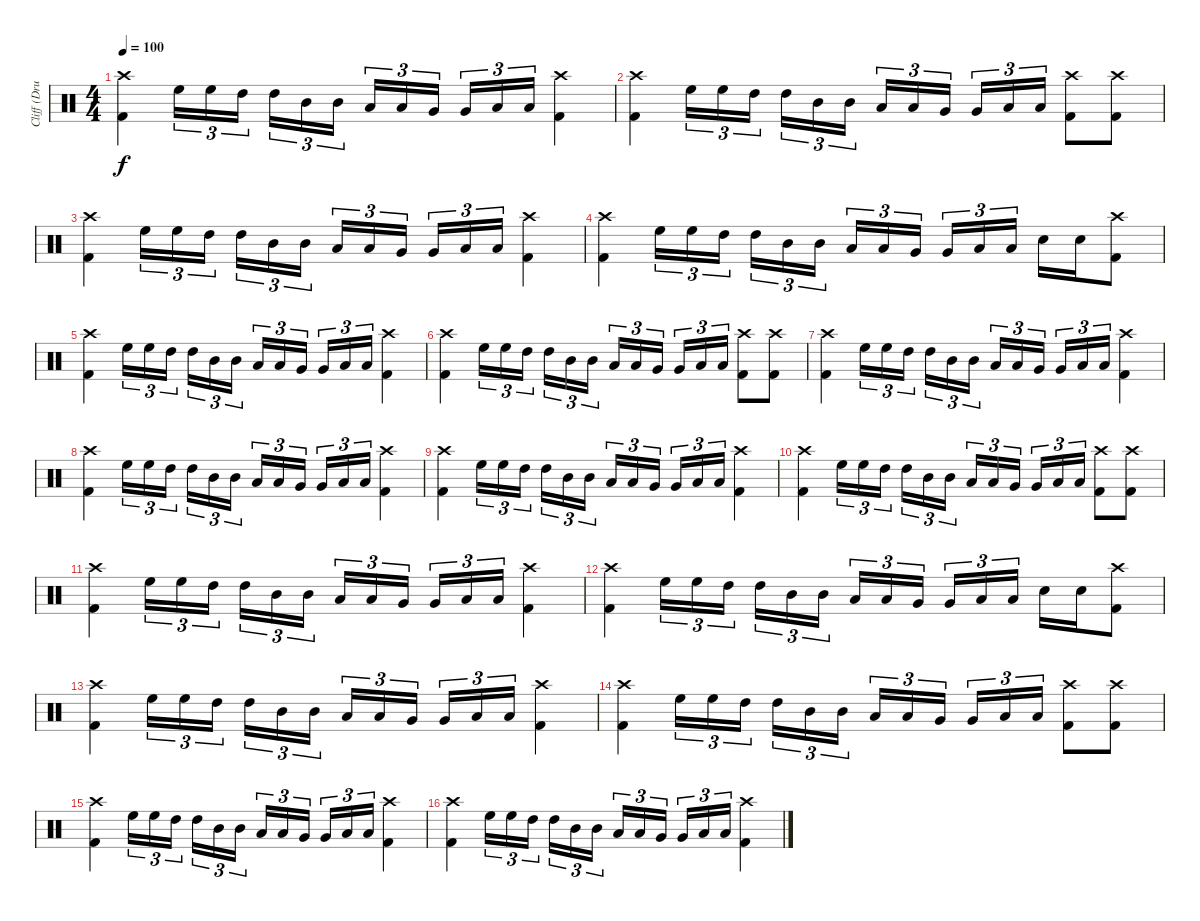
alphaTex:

\track ("Cliff (Drums)" "Cliff (Dru") {instrument percussion}
\staff {score}
\articulation defaults
\ts (4 4)
\tempo 100
\clef neutral
\ks c
("Crash high (hit)" "Kick (hit) 2").4{dy f} "High Floor Tom (hit)".16{tu (3 2)} "High Floor Tom (hit)".16{tu (3 2)} "High Tom (hit)".16{tu (3 2)} "High Tom (hit)".16{tu (3 2)} "Mid Tom (hit)".16{tu (3 2)} "Mid Tom (hit)".16{tu (3 2)} "Low Tom (hit)".16{tu (3 2)} "Low Tom (hit)".16{tu (3 2)} "Very Low Tom (hit)".16{tu (3 2)} "Very Low Tom (hit)".16{tu (3 2)} "Low Floor Tom (hit)".16{tu (3 2)} "Low Floor Tom (hit)".16{tu (3 2)} ("Crash high (hit)" "Kick (hit) 2").4 |
("Crash high (hit)" "Kick (hit) 2").4 "High Floor Tom (hit)".16{tu (3 2)} "High Floor Tom (hit)".16{tu (3 2)} "High Tom (hit)".16{tu (3 2)} "High Tom (hit)".16{tu (3 2)} "Mid Tom (hit)".16{tu (3 2)} "Mid Tom (hit)".16{tu (3 2)} "Low Tom (hit)".16{tu (3 2)} "Low Tom (hit)".16{tu (3 2)} "Very Low Tom (hit)".16{tu (3 2)} "Very Low Tom (hit)".16{tu (3 2)} "Low Floor Tom (hit)".16{tu (3 2)} "Low Floor Tom (hit)".16{tu (3 2)} ("Crash high (hit)" "Kick (hit) 2").8 ("Crash high (hit)" "Kick (hit) 2").8 |
("Crash high (hit)" "Kick (hit) 2").4 "High Floor Tom (hit)".16{tu (3 2)} "High Floor Tom (hit)".16{tu (3 2)} "High Tom (hit)".16{tu (3 2)} "High Tom (hit)".16{tu (3 2)} "Mid Tom (hit)".16{tu (3 2)} "Mid Tom (hit)".16{tu (3 2)} "Low Tom (hit)".16{tu (3 2)} "Low Tom (hit)".16{tu (3 2)} "Very Low Tom (hit)".16{tu (3 2)} "Very Low Tom (hit)".16{tu (3 2)} "Low Floor Tom (hit)".16{tu (3 2)} "Low Floor Tom (hit)".16{tu (3 2)} ("Crash high (hit)" "Kick (hit) 2").4 |
("Crash high (hit)" "Kick (hit) 2").4 "High Floor Tom (hit)".16{tu (3 2)} "High Floor Tom (hit)".16{tu (3 2)} "High Tom (hit)".16{tu (3 2)} "High Tom (hit)".16{tu (3 2)} "Mid Tom (hit)".16{tu (3 2)} "Mid Tom (hit)".16{tu (3 2)} "Low Tom (hit)".16{tu (3 2)} "Low Tom (hit)".16{tu (3 2)} "Very Low Tom (hit)".16{tu (3 2)} "Very Low Tom (hit)".16{tu (3 2)} "Low Floor Tom (hit)".16{tu (3 2)} "Low Floor Tom (hit)".16{tu (3 2)} "Snare (hit) 2".16 "Snare (hit) 2".16 ("Crash high (hit)" "Kick (hit) 2").8 |
("Crash high (hit)" "Kick (hit) 2").4 "High Floor Tom (hit)".16{tu (3 2)} "High Floor Tom (hit)".16{tu (3 2)} "High Tom (hit)".16{tu (3 2)} "High Tom (hit)".16{tu (3 2)} "Mid Tom (hit)".16{tu (3 2)} "Mid Tom (hit)".16{tu (3 2)} "Low Tom (hit)".16{tu (3 2)} "Low Tom (hit)".16{tu (3 2)} "Very Low Tom (hit)".16{tu (3 2)} "Very Low Tom (hit)".16{tu (3 2)} "Low Floor Tom (hit)".16{tu (3 2)} "Low Floor Tom (hit)".16{tu (3 2)} ("Crash high (hit)" "Kick (hit) 2").4 |
("Crash high (hit)" "Kick (hit) 2").4 "High Floor Tom (hit)".16{tu (3 2)} "High Floor Tom (hit)".16{tu (3 2)} "High Tom (hit)".16{tu (3 2)} "High Tom (hit)".16{tu (3 2)} "Mid Tom (hit)".16{tu (3 2)} "Mid Tom (hit)".16{tu (3 2)} "Low Tom (hit)".16{tu (3 2)} "Low Tom (hit)".16{tu (3 2)} "Very Low Tom (hit)".16{tu (3 2)} "Very Low Tom (hit)".16{tu (3 2)} "Low Floor Tom (hit)".16{tu (3 2)} "Low Floor Tom (hit)".16{tu (3 2)} ("Crash high (hit)" "Kick (hit) 2").8 ("Crash high (hit)" "Kick (hit) 2").8 |
("Crash high (hit)" "Kick (hit) 2").4 "High Floor Tom (hit)".16{tu (3 2)} "High Floor Tom (hit)".16{tu (3 2)} "High Tom (hit)".16{tu (3 2)} "High Tom (hit)".16{tu (3 2)} "Mid Tom (hit)".16{tu (3 2)} "Mid Tom (hit)".16{tu (3 2)} "Low Tom (hit)".16{tu (3 2)} "Low Tom (hit)".16{tu (3 2)} "Very Low Tom (hit)".16{tu (3 2)} "Very Low Tom (hit)".16{tu (3 2)} "Low Floor Tom (hit)".16{tu (3 2)} "Low Floor Tom (hit)".16{tu (3 2)} ("Crash high (hit)" "Kick (hit) 2").4 |
("Crash high (hit)" "Kick (hit) 2").4 "High Floor Tom (hit)".16{tu (3 2)} "High Floor Tom (hit)".16{tu (3 2)} "High Tom (hit)".16{tu (3 2)} "High Tom (hit)".16{tu (3 2)} "Mid Tom (hit)".16{tu (3 2)} "Mid Tom (hit)".16{tu (3 2)} "Low Tom (hit)".16{tu (3 2)} "Low Tom (hit)".16{tu (3 2)} "Very Low Tom (hit)".16{tu (3 2)} "Very Low Tom (hit)".16{tu (3 2)} "Low Floor Tom (hit)".16{tu (3 2)} "Low Floor Tom (hit)".16{tu (3 2)} ("Crash high (hit)" "Kick (hit) 2").4 |
("Crash high (hit)" "Kick (hit) 2").4 "High Floor Tom (hit)".16{tu (3 2)} "High Floor Tom (hit)".16{tu (3 2)} "High Tom (hit)".16{tu (3 2)} "High Tom (hit)".16{tu (3 2)} "Mid Tom (hit)".16{tu (3 2)} "Mid Tom (hit)".16{tu (3 2)} "Low Tom (hit)".16{tu (3 2)} "Low Tom (hit)".16{tu (3 2)} "Very Low Tom (hit)".16{tu (3 2)} "Very Low Tom (hit)".16{tu (3 2)} "Low Floor Tom (hit)".16{tu (3 2)} "Low Floor Tom (hit)".16{tu (3 2)} ("Crash high (hit)" "Kick (hit) 2").4 |
("Crash high (hit)" "Kick (hit) 2").4 "High Floor Tom (hit)".16{tu (3 2)} "High Floor Tom (hit)".16{tu (3 2)} "High Tom (hit)".16{tu (3 2)} "High Tom (hit)".16{tu (3 2)} "Mid Tom (hit)".16{tu (3 2)} "Mid Tom (hit)".16{tu (3 2)} "Low Tom (hit)".16{tu (3 2)} "Low Tom (hit)".16{tu (3 2)} "Very Low Tom (hit)".16{tu (3 2)} "Very Low Tom (hit)".16{tu (3 2)} "Low Floor Tom (hit)".16{tu (3 2)} "Low Floor Tom (hit)".16{tu (3 2)} ("Crash high (hit)" "Kick (hit) 2").8 ("Crash high (hit)" "Kick (hit) 2").8 |
("Crash high (hit)" "Kick (hit) 2").4 "High Floor Tom (hit)".16{tu (3 2)} "High Floor Tom (hit)".16{tu (3 2)} "High Tom (hit)".16{tu (3 2)} "High Tom (hit)".16{tu (3 2)} "Mid Tom (hit)".16{tu (3 2)} "Mid Tom (hit)".16{tu (3 2)} "Low Tom (hit)".16{tu (3 2)} "Low Tom (hit)".16{tu (3 2)} "Very Low Tom (hit)".16{tu (3 2)} "Very Low Tom (hit)".16{tu (3 2)} "Low Floor Tom (hit)".16{tu (3 2)} "Low Floor Tom (hit)".16{tu (3 2)} ("Crash high (hit)" "Kick (hit) 2").4 |
("Crash high (hit)" "Kick (hit) 2").4 "High Floor Tom (hit)".16{tu (3 2)} "High Floor Tom (hit)".16{tu (3 2)} "High Tom (hit)".16{tu (3 2)} "High Tom (hit)".16{tu (3 2)} "Mid Tom (hit)".16{tu (3 2)} "Mid Tom (hit)".16{tu (3 2)} "Low Tom (hit)".16{tu (3 2)} "Low Tom (hit)".16{tu (3 2)} "Very Low Tom (hit)".16{tu (3 2)} "Very Low Tom (hit)".16{tu (3 2)} "Low Floor Tom (hit)".16{tu (3 2)} "Low Floor Tom (hit)".16{tu (3 2)} "Snare (hit) 2".16 "Snare (hit) 2".16 ("Crash high (hit)" "Kick (hit) 2").8 |
("Crash high (hit)" "Kick (hit) 2").4 "High Floor Tom (hit)".16{tu (3 2)} "High Floor Tom (hit)".16{tu (3 2)} "High Tom (hit)".16{tu (3 2)} "High Tom (hit)".16{tu (3 2)} "Mid Tom (hit)".16{tu (3 2)} "Mid Tom (hit)".16{tu (3 2)} "Low Tom (hit)".16{tu (3 2)} "Low Tom (hit)".16{tu (3 2)} "Very Low Tom (hit)".16{tu (3 2)} "Very Low Tom (hit)".16{tu (3 2)} "Low Floor Tom (hit)".16{tu (3 2)} "Low Floor Tom (hit)".16{tu (3 2)} ("Crash high (hit)" "Kick (hit) 2").4 |
("Crash high (hit)" "Kick (hit) 2").4 "High Floor Tom (hit)".16{tu (3 2)} "High Floor Tom (hit)".16{tu (3 2)} "High Tom (hit)".16{tu (3 2)} "High Tom (hit)".16{tu (3 2)} "Mid Tom (hit)".16{tu (3 2)} "Mid Tom (hit)".16{tu (3 2)} "Low Tom (hit)".16{tu (3 2)} "Low Tom (hit)".16{tu (3 2)} "Very Low Tom (hit)".16{tu (3 2)} "Very Low Tom (hit)".16{tu (3 2)} "Low Floor Tom (hit)".16{tu (3 2)} "Low Floor Tom (hit)".16{tu (3 2)} ("Crash high (hit)" "Kick (hit) 2").8 ("Crash high (hit)" "Kick (hit) 2").8 |
("Crash high (hit)" "Kick (hit) 2").4 "High Floor Tom (hit)".16{tu (3 2)} "High Floor Tom (hit)".16{tu (3 2)} "High Tom (hit)".16{tu (3 2)} "High Tom (hit)".16{tu (3 2)} "Mid Tom (hit)".16{tu (3 2)} "Mid Tom (hit)".16{tu (3 2)} "Low Tom (hit)".16{tu (3 2)} "Low Tom (hit)".16{tu (3 2)} "Very Low Tom (hit)".16{tu (3 2)} "Very Low Tom (hit)".16{tu (3 2)} "Low Floor Tom (hit)".16{tu (3 2)} "Low Floor Tom (hit)".16{tu (3 2)} ("Crash high (hit)" "Kick (hit) 2").4 |
("Crash high (hit)" "Kick (hit) 2").4 "High Floor Tom (hit)".16{tu (3 2)} "High Floor Tom (hit)".16{tu (3 2)} "High Tom (hit)".16{tu (3 2)} "High Tom (hit)".16{tu (3 2)} "Mid Tom (hit)".16{tu (3 2)} "Mid Tom (hit)".16{tu (3 2)} "Low Tom (hit)".16{tu (3 2)} "Low Tom (hit)".16{tu (3 2)} "Very Low Tom (hit)".16{tu (3 2)} "Very Low Tom (hit)".16{tu (3 2)} "Low Floor Tom (hit)".16{tu (3 2)} "Low Floor Tom (hit)".16{tu (3 2)} ("Crash high (hit)" "Kick (hit) 2").4
